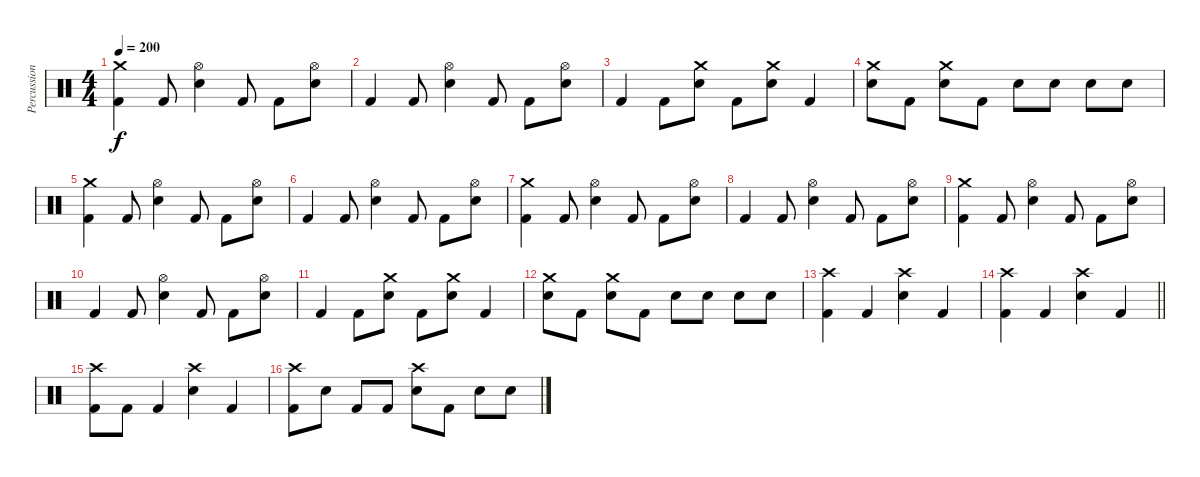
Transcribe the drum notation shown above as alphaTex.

\track ("Percussion" "Percussion") {instrument percussion}
\staff {score}
\articulation defaults
\ts (4 4)
\tempo 200
\clef neutral
\ks c
("Crash medium (hit)" "Kick (hit) 2").4{dy f} "Kick (hit) 2".8 ("Hi-Hat (open)" "Snare (hit) 2").4 "Kick (hit) 2".8 "Kick (hit) 2".8 ("Hi-Hat (open)" "Snare (hit) 2").8 |
"Kick (hit) 2".4 "Kick (hit) 2".8 ("Hi-Hat (open)" "Snare (hit) 2").4 "Kick (hit) 2".8 "Kick (hit) 2".8 ("Hi-Hat (open)" "Snare (hit) 2").8 |
"Kick (hit) 2".4 "Kick (hit) 2".8 ("Crash medium (hit)" "Snare (hit) 2").8 "Kick (hit) 2".8 ("Crash medium (hit)" "Snare (hit) 2").8 "Kick (hit) 2".4 |
("Crash medium (hit)" "Snare (hit) 2").8 "Kick (hit) 2".8 ("Crash medium (hit)" "Snare (hit) 2").8 "Kick (hit) 2".8 "Snare (hit) 2".8 "Snare (hit) 2".8 "Snare (hit) 2".8 "Snare (hit) 2".8 |
("Crash medium (hit)" "Kick (hit) 2").4 "Kick (hit) 2".8 ("Hi-Hat (open)" "Snare (hit) 2").4 "Kick (hit) 2".8 "Kick (hit) 2".8 ("Hi-Hat (open)" "Snare (hit) 2").8 |
"Kick (hit) 2".4 "Kick (hit) 2".8 ("Hi-Hat (open)" "Snare (hit) 2").4 "Kick (hit) 2".8 "Kick (hit) 2".8 ("Hi-Hat (open)" "Snare (hit) 2").8 |
("Crash medium (hit)" "Kick (hit) 2").4 "Kick (hit) 2".8 ("Hi-Hat (open)" "Snare (hit) 2").4 "Kick (hit) 2".8 "Kick (hit) 2".8 ("Hi-Hat (open)" "Snare (hit) 2").8 |
"Kick (hit) 2".4 "Kick (hit) 2".8 ("Hi-Hat (open)" "Snare (hit) 2").4 "Kick (hit) 2".8 "Kick (hit) 2".8 ("Hi-Hat (open)" "Snare (hit) 2").8 |
("Crash medium (hit)" "Kick (hit) 2").4 "Kick (hit) 2".8 ("Hi-Hat (open)" "Snare (hit) 2").4 "Kick (hit) 2".8 "Kick (hit) 2".8 ("Hi-Hat (open)" "Snare (hit) 2").8 |
"Kick (hit) 2".4 "Kick (hit) 2".8 ("Hi-Hat (open)" "Snare (hit) 2").4 "Kick (hit) 2".8 "Kick (hit) 2".8 ("Hi-Hat (open)" "Snare (hit) 2").8 |
"Kick (hit) 2".4 "Kick (hit) 2".8 ("Crash medium (hit)" "Snare (hit) 2").8 "Kick (hit) 2".8 ("Crash medium (hit)" "Snare (hit) 2").8 "Kick (hit) 2".4 |
("Crash medium (hit)" "Snare (hit) 2").8 "Kick (hit) 2".8 ("Crash medium (hit)" "Snare (hit) 2").8 "Kick (hit) 2".8 "Snare (hit) 2".8 "Snare (hit) 2".8 "Snare (hit) 2".8 "Snare (hit) 2".8 |
("Crash high (hit)" "Kick (hit) 2").4 "Kick (hit) 2".4 ("Crash high (hit)" "Snare (hit) 2").4 "Kick (hit) 2".4 |
\barLineRight lightlight
("Crash high (hit)" "Kick (hit) 2").4 "Kick (hit) 2".4 ("Crash high (hit)" "Snare (hit) 2").4 "Kick (hit) 2".4 |
("Crash high (hit)" "Kick (hit) 2").8 "Kick (hit) 2".8 "Kick (hit) 2".4 ("Crash high (hit)" "Snare (hit) 2").4 "Kick (hit) 2".4 |
("Crash high (hit)" "Kick (hit) 2").8 "Snare (hit) 2".8 "Kick (hit) 2".8 "Kick (hit) 2".8 ("Crash high (hit)" "Snare (hit) 2").8 "Kick (hit) 2".8 "Snare (hit) 2".8 "Snare (hit) 2".8
